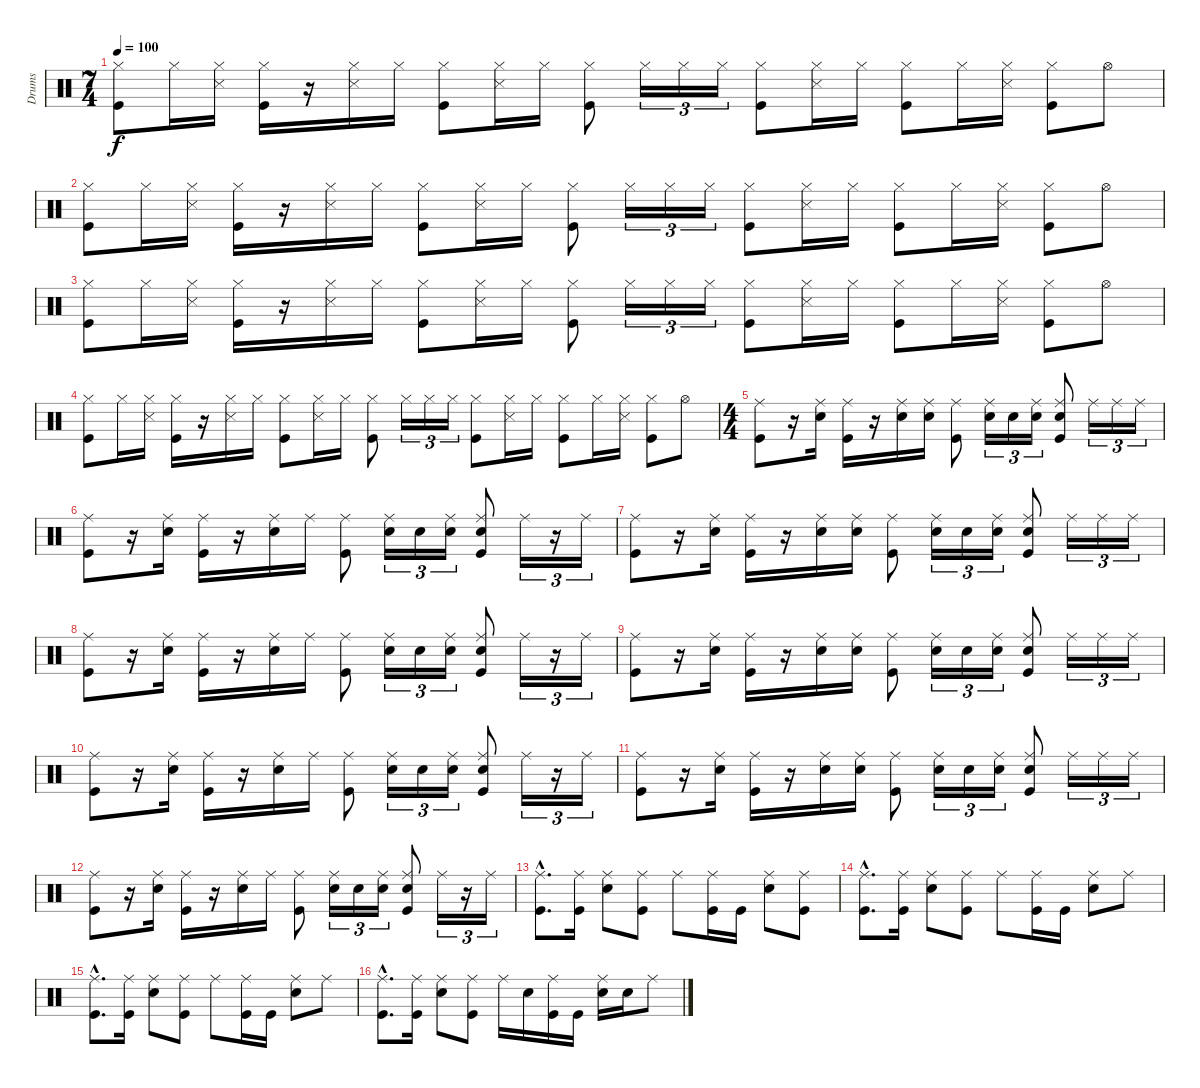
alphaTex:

\track ("Drums" "Drums") {instrument percussion}
\staff {score}
\articulation defaults
\ts (7 4)
\tempo 100
\clef neutral
\ks c
("Kick (hit)" "Hi-Hat (closed)").8{dy f} "Hi-Hat (closed)".16 ("Snare (side stick) 3" "Hi-Hat (closed)").16 ("Kick (hit)" "Hi-Hat (closed)").16 r.16 ("Snare (side stick) 3" "Hi-Hat (closed)").16 "Hi-Hat (closed)".16 ("Kick (hit)" "Hi-Hat (closed)").8 ("Snare (side stick) 3" "Hi-Hat (closed)").16 "Hi-Hat (closed)".16 ("Kick (hit)" "Hi-Hat (closed)").8 "Hi-Hat (closed)".16{tu (3 2)} "Hi-Hat (closed)".16{tu (3 2)} "Hi-Hat (closed)".16{tu (3 2)} ("Kick (hit)" "Hi-Hat (closed)").8 ("Snare (side stick) 3" "Hi-Hat (closed)").16 "Hi-Hat (closed)".16 ("Kick (hit)" "Hi-Hat (closed)").8 "Hi-Hat (closed)".16 ("Snare (side stick) 3" "Hi-Hat (closed)").16 ("Kick (hit)" "Hi-Hat (closed)").8 "Hi-Hat (open)".8 |
("Kick (hit)" "Hi-Hat (closed)").8 "Hi-Hat (closed)".16 ("Snare (side stick) 3" "Hi-Hat (closed)").16 ("Kick (hit)" "Hi-Hat (closed)").16 r.16 ("Snare (side stick) 3" "Hi-Hat (closed)").16 "Hi-Hat (closed)".16 ("Kick (hit)" "Hi-Hat (closed)").8 ("Snare (side stick) 3" "Hi-Hat (closed)").16 "Hi-Hat (closed)".16 ("Kick (hit)" "Hi-Hat (closed)").8 "Hi-Hat (closed)".16{tu (3 2)} "Hi-Hat (closed)".16{tu (3 2)} "Hi-Hat (closed)".16{tu (3 2)} ("Kick (hit)" "Hi-Hat (closed)").8 ("Snare (side stick) 3" "Hi-Hat (closed)").16 "Hi-Hat (closed)".16 ("Kick (hit)" "Hi-Hat (closed)").8 "Hi-Hat (closed)".16 ("Snare (side stick) 3" "Hi-Hat (closed)").16 ("Kick (hit)" "Hi-Hat (closed)").8 "Hi-Hat (open)".8 |
("Kick (hit)" "Hi-Hat (closed)").8 "Hi-Hat (closed)".16 ("Snare (side stick) 3" "Hi-Hat (closed)").16 ("Kick (hit)" "Hi-Hat (closed)").16 r.16 ("Snare (side stick) 3" "Hi-Hat (closed)").16 "Hi-Hat (closed)".16 ("Kick (hit)" "Hi-Hat (closed)").8 ("Snare (side stick) 3" "Hi-Hat (closed)").16 "Hi-Hat (closed)".16 ("Kick (hit)" "Hi-Hat (closed)").8 "Hi-Hat (closed)".16{tu (3 2)} "Hi-Hat (closed)".16{tu (3 2)} "Hi-Hat (closed)".16{tu (3 2)} ("Kick (hit)" "Hi-Hat (closed)").8 ("Snare (side stick) 3" "Hi-Hat (closed)").16 "Hi-Hat (closed)".16 ("Kick (hit)" "Hi-Hat (closed)").8 "Hi-Hat (closed)".16 ("Snare (side stick) 3" "Hi-Hat (closed)").16 ("Kick (hit)" "Hi-Hat (closed)").8 "Hi-Hat (open)".8 |
("Kick (hit)" "Hi-Hat (closed)").8 "Hi-Hat (closed)".16 ("Snare (side stick) 3" "Hi-Hat (closed)").16 ("Kick (hit)" "Hi-Hat (closed)").16 r.16 ("Snare (side stick) 3" "Hi-Hat (closed)").16 "Hi-Hat (closed)".16 ("Kick (hit)" "Hi-Hat (closed)").8 ("Snare (side stick) 3" "Hi-Hat (closed)").16 "Hi-Hat (closed)".16 ("Kick (hit)" "Hi-Hat (closed)").8 "Hi-Hat (closed)".16{tu (3 2)} "Hi-Hat (closed)".16{tu (3 2)} "Hi-Hat (closed)".16{tu (3 2)} ("Kick (hit)" "Hi-Hat (closed)").8 ("Snare (side stick) 3" "Hi-Hat (closed)").16 "Hi-Hat (closed)".16 ("Kick (hit)" "Hi-Hat (closed)").8 "Hi-Hat (closed)".16 ("Snare (side stick) 3" "Hi-Hat (closed)").16 ("Kick (hit)" "Hi-Hat (closed)").8 "Hi-Hat (open)".8 |
\ts (4 4)
("Kick (hit)" "Ride (middle)").8{volume 9} r.16 ("Snare (hit) 2" "Ride (middle)").16 ("Kick (hit)" "Ride (middle)").16 r.16 ("Snare (hit) 2" "Ride (middle)").16 ("Snare (hit) 2" "Ride (middle)").16 ("Kick (hit)" "Ride (middle)").8 ("Snare (hit) 2" "Ride (middle)").16{tu (3 2)} "Snare (hit) 2".16{tu (3 2)} ("Snare (hit) 2" "Ride (middle)").16{tu (3 2)} ("Kick (hit)" "Snare (hit) 2" "Ride (middle)").8 "Ride (middle)".16{tu (3 2)} "Ride (middle)".16{tu (3 2)} "Ride (middle)".16{tu (3 2)} |
("Kick (hit)" "Ride (middle)").8 r.16 ("Snare (hit) 2" "Ride (middle)").16 ("Kick (hit)" "Ride (middle)").16 r.16 ("Snare (hit) 2" "Ride (middle)").16 "Ride (middle)".16 ("Kick (hit)" "Ride (middle)").8 ("Snare (hit) 2" "Ride (middle)").16{tu (3 2)} "Snare (hit) 2".16{tu (3 2)} ("Snare (hit) 2" "Ride (middle)").16{tu (3 2)} ("Kick (hit)" "Snare (hit) 2" "Ride (middle)").8 "Ride (middle)".16{tu (3 2)} r.16{tu (3 2)} "Ride (middle)".16{tu (3 2)} |
("Kick (hit)" "Ride (middle)").8{volume 9} r.16 ("Snare (hit) 2" "Ride (middle)").16 ("Kick (hit)" "Ride (middle)").16 r.16 ("Snare (hit) 2" "Ride (middle)").16 ("Snare (hit) 2" "Ride (middle)").16 ("Kick (hit)" "Ride (middle)").8 ("Snare (hit) 2" "Ride (middle)").16{tu (3 2)} "Snare (hit) 2".16{tu (3 2)} ("Snare (hit) 2" "Ride (middle)").16{tu (3 2)} ("Kick (hit)" "Snare (hit) 2" "Ride (middle)").8 "Ride (middle)".16{tu (3 2)} "Ride (middle)".16{tu (3 2)} "Ride (middle)".16{tu (3 2)} |
("Kick (hit)" "Ride (middle)").8 r.16 ("Snare (hit) 2" "Ride (middle)").16 ("Kick (hit)" "Ride (middle)").16 r.16 ("Snare (hit) 2" "Ride (middle)").16 "Ride (middle)".16 ("Kick (hit)" "Ride (middle)").8 ("Snare (hit) 2" "Ride (middle)").16{tu (3 2)} "Snare (hit) 2".16{tu (3 2)} ("Snare (hit) 2" "Ride (middle)").16{tu (3 2)} ("Kick (hit)" "Snare (hit) 2" "Ride (middle)").8 "Ride (middle)".16{tu (3 2)} r.16{tu (3 2)} "Ride (middle)".16{tu (3 2)} |
("Kick (hit)" "Ride (middle)").8{volume 9} r.16 ("Snare (hit) 2" "Ride (middle)").16 ("Kick (hit)" "Ride (middle)").16 r.16 ("Snare (hit) 2" "Ride (middle)").16 ("Snare (hit) 2" "Ride (middle)").16 ("Kick (hit)" "Ride (middle)").8 ("Snare (hit) 2" "Ride (middle)").16{tu (3 2)} "Snare (hit) 2".16{tu (3 2)} ("Snare (hit) 2" "Ride (middle)").16{tu (3 2)} ("Kick (hit)" "Snare (hit) 2" "Ride (middle)").8 "Ride (middle)".16{tu (3 2)} "Ride (middle)".16{tu (3 2)} "Ride (middle)".16{tu (3 2)} |
("Kick (hit)" "Ride (middle)").8 r.16 ("Snare (hit) 2" "Ride (middle)").16 ("Kick (hit)" "Ride (middle)").16 r.16 ("Snare (hit) 2" "Ride (middle)").16 "Ride (middle)".16 ("Kick (hit)" "Ride (middle)").8 ("Snare (hit) 2" "Ride (middle)").16{tu (3 2)} "Snare (hit) 2".16{tu (3 2)} ("Snare (hit) 2" "Ride (middle)").16{tu (3 2)} ("Kick (hit)" "Snare (hit) 2" "Ride (middle)").8 "Ride (middle)".16{tu (3 2)} r.16{tu (3 2)} "Ride (middle)".16{tu (3 2)} |
("Kick (hit)" "Ride (middle)").8{volume 9} r.16 ("Snare (hit) 2" "Ride (middle)").16 ("Kick (hit)" "Ride (middle)").16 r.16 ("Snare (hit) 2" "Ride (middle)").16 ("Snare (hit) 2" "Ride (middle)").16 ("Kick (hit)" "Ride (middle)").8 ("Snare (hit) 2" "Ride (middle)").16{tu (3 2)} "Snare (hit) 2".16{tu (3 2)} ("Snare (hit) 2" "Ride (middle)").16{tu (3 2)} ("Kick (hit)" "Snare (hit) 2" "Ride (middle)").8 "Ride (middle)".16{tu (3 2)} "Ride (middle)".16{tu (3 2)} "Ride (middle)".16{tu (3 2)} |
("Kick (hit)" "Ride (middle)").8 r.16 ("Snare (hit) 2" "Ride (middle)").16 ("Kick (hit)" "Ride (middle)").16 r.16 ("Snare (hit) 2" "Ride (middle)").16 "Ride (middle)".16 ("Kick (hit)" "Ride (middle)").8 ("Snare (hit) 2" "Ride (middle)").16{tu (3 2)} "Snare (hit) 2".16{tu (3 2)} ("Snare (hit) 2" "Ride (middle)").16{tu (3 2)} ("Kick (hit)" "Snare (hit) 2" "Ride (middle)").8 "Ride (middle)".16{tu (3 2)} r.16{tu (3 2)} "Ride (middle)".16{tu (3 2)} |
("Kick (hit)"{hac} "Ride (middle)"{hac}).8{d volume 13} ("Kick (hit)" "Ride (middle)").16 ("Snare (hit) 2" "Ride (middle)").8 ("Kick (hit)" "Ride (middle)").8 "Ride (middle)".8 ("Kick (hit)" "Ride (middle)").16 "Kick (hit)".16 ("Snare (hit) 2" "Ride (middle)").8 ("Kick (hit)" "Ride (middle)").8 |
("Kick (hit)"{hac} "Ride (middle)"{hac}).8{d} ("Kick (hit)" "Ride (middle)").16 ("Snare (hit) 2" "Ride (middle)").8 ("Kick (hit)" "Ride (middle)").8 "Ride (middle)".8 ("Kick (hit)" "Ride (middle)").16 "Kick (hit)".16 ("Snare (hit) 2" "Ride (middle)").8 "Ride (middle)".8 |
("Kick (hit)"{hac} "Ride (middle)"{hac}).8{d} ("Kick (hit)" "Ride (middle)").16 ("Snare (hit) 2" "Ride (middle)").8 ("Kick (hit)" "Ride (middle)").8 "Ride (middle)".8 ("Kick (hit)" "Ride (middle)").16 "Kick (hit)".16 ("Snare (hit) 2" "Ride (middle)").8 "Ride (middle)".8 |
("Kick (hit)"{hac} "Ride (middle)"{hac}).8{d} ("Kick (hit)" "Ride (middle)").16 ("Snare (hit) 2" "Ride (middle)").8 ("Kick (hit)" "Ride (middle)").8 "Ride (middle)".16 "Snare (hit) 2".16 ("Kick (hit)" "Ride (middle)").16 "Kick (hit)".16 ("Snare (hit) 2" "Ride (middle)").16 "Snare (hit) 2".16 "Ride (middle)".8
